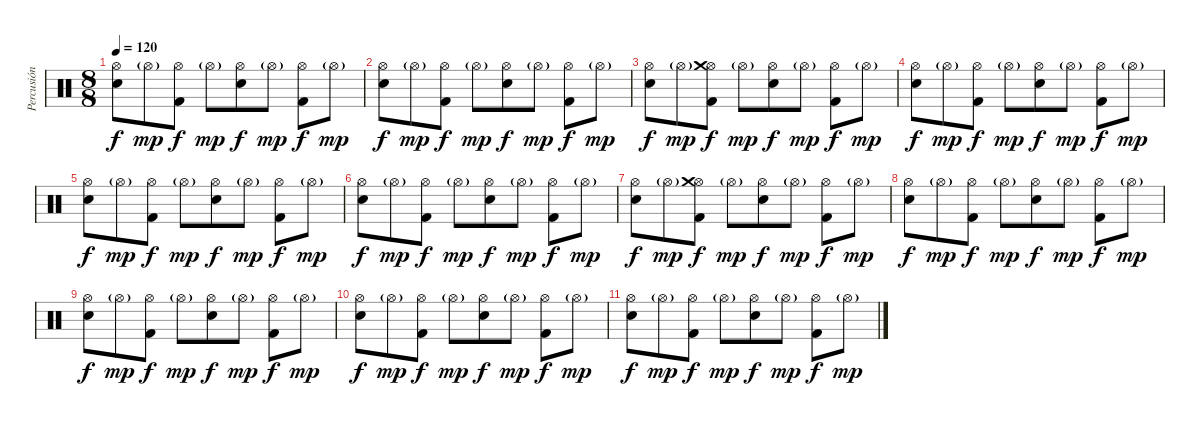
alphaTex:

\track ("Percusión" "Percusión") {instrument percussion}
\staff {score}
\articulation defaults
\ts (8 8)
\tempo 120
\clef neutral
\ks c
("Hi-Hat (open)" "Snare (hit) 2").8{dy f} "Hi-Hat (open)"{g}.8{dy mp} ("Hi-Hat (open)" "Kick (hit) 2").8{dy f} "Hi-Hat (open)"{g}.8{dy mp} ("Hi-Hat (open)" "Snare (hit) 2").8{dy f} "Hi-Hat (open)"{g}.8{dy mp} ("Hi-Hat (open)" "Kick (hit) 2").8{dy f} "Hi-Hat (open)"{g}.8{dy mp} |
("Hi-Hat (open)" "Snare (hit) 2").8{dy f} "Hi-Hat (open)"{g}.8{dy mp} ("Hi-Hat (open)" "Kick (hit) 2").8{dy f} "Hi-Hat (open)"{g}.8{dy mp} ("Hi-Hat (open)" "Snare (hit) 2").8{dy f} "Hi-Hat (open)"{g}.8{dy mp} ("Hi-Hat (open)" "Kick (hit) 2").8{dy f} "Hi-Hat (open)"{g}.8{dy mp} |
("Hi-Hat (open)" "Snare (hit) 2").8{dy f} "Hi-Hat (open)"{g}.8{dy mp} ("Hi-Hat (open)" "Crash medium (hit)" "Kick (hit) 2").8{dy f} "Hi-Hat (open)"{g}.8{dy mp} ("Hi-Hat (open)" "Snare (hit) 2").8{dy f} "Hi-Hat (open)"{g}.8{dy mp} ("Hi-Hat (open)" "Kick (hit) 2").8{dy f} "Hi-Hat (open)"{g}.8{dy mp} |
("Hi-Hat (open)" "Snare (hit) 2").8{dy f} "Hi-Hat (open)"{g}.8{dy mp} ("Hi-Hat (open)" "Kick (hit) 2").8{dy f} "Hi-Hat (open)"{g}.8{dy mp} ("Hi-Hat (open)" "Snare (hit) 2").8{dy f} "Hi-Hat (open)"{g}.8{dy mp} ("Hi-Hat (open)" "Kick (hit) 2").8{dy f} "Hi-Hat (open)"{g}.8{dy mp} |
("Hi-Hat (open)" "Snare (hit) 2").8{dy f} "Hi-Hat (open)"{g}.8{dy mp} ("Hi-Hat (open)" "Kick (hit) 2").8{dy f} "Hi-Hat (open)"{g}.8{dy mp} ("Hi-Hat (open)" "Snare (hit) 2").8{dy f} "Hi-Hat (open)"{g}.8{dy mp} ("Hi-Hat (open)" "Kick (hit) 2").8{dy f} "Hi-Hat (open)"{g}.8{dy mp} |
("Hi-Hat (open)" "Snare (hit) 2").8{dy f} "Hi-Hat (open)"{g}.8{dy mp} ("Hi-Hat (open)" "Kick (hit) 2").8{dy f} "Hi-Hat (open)"{g}.8{dy mp} ("Hi-Hat (open)" "Snare (hit) 2").8{dy f} "Hi-Hat (open)"{g}.8{dy mp} ("Hi-Hat (open)" "Kick (hit) 2").8{dy f} "Hi-Hat (open)"{g}.8{dy mp} |
("Hi-Hat (open)" "Snare (hit) 2").8{dy f} "Hi-Hat (open)"{g}.8{dy mp} ("Hi-Hat (open)" "Crash medium (hit)" "Kick (hit) 2").8{dy f} "Hi-Hat (open)"{g}.8{dy mp} ("Hi-Hat (open)" "Snare (hit) 2").8{dy f} "Hi-Hat (open)"{g}.8{dy mp} ("Hi-Hat (open)" "Kick (hit) 2").8{dy f} "Hi-Hat (open)"{g}.8{dy mp} |
("Hi-Hat (open)" "Snare (hit) 2").8{dy f} "Hi-Hat (open)"{g}.8{dy mp} ("Hi-Hat (open)" "Kick (hit) 2").8{dy f} "Hi-Hat (open)"{g}.8{dy mp} ("Hi-Hat (open)" "Snare (hit) 2").8{dy f} "Hi-Hat (open)"{g}.8{dy mp} ("Hi-Hat (open)" "Kick (hit) 2").8{dy f} "Hi-Hat (open)"{g}.8{dy mp} |
("Hi-Hat (open)" "Snare (hit) 2").8{dy f} "Hi-Hat (open)"{g}.8{dy mp} ("Hi-Hat (open)" "Kick (hit) 2").8{dy f} "Hi-Hat (open)"{g}.8{dy mp} ("Hi-Hat (open)" "Snare (hit) 2").8{dy f} "Hi-Hat (open)"{g}.8{dy mp} ("Hi-Hat (open)" "Kick (hit) 2").8{dy f} "Hi-Hat (open)"{g}.8{dy mp} |
("Hi-Hat (open)" "Snare (hit) 2").8{dy f} "Hi-Hat (open)"{g}.8{dy mp} ("Hi-Hat (open)" "Kick (hit) 2").8{dy f} "Hi-Hat (open)"{g}.8{dy mp} ("Hi-Hat (open)" "Snare (hit) 2").8{dy f} "Hi-Hat (open)"{g}.8{dy mp} ("Hi-Hat (open)" "Kick (hit) 2").8{dy f} "Hi-Hat (open)"{g}.8{dy mp} |
("Hi-Hat (open)" "Snare (hit) 2").8{dy f} "Hi-Hat (open)"{g}.8{dy mp} ("Hi-Hat (open)" "Kick (hit) 2").8{dy f} "Hi-Hat (open)"{g}.8{dy mp} ("Hi-Hat (open)" "Snare (hit) 2").8{dy f} "Hi-Hat (open)"{g}.8{dy mp} ("Hi-Hat (open)" "Kick (hit) 2").8{dy f} "Hi-Hat (open)"{g}.8{dy mp}
